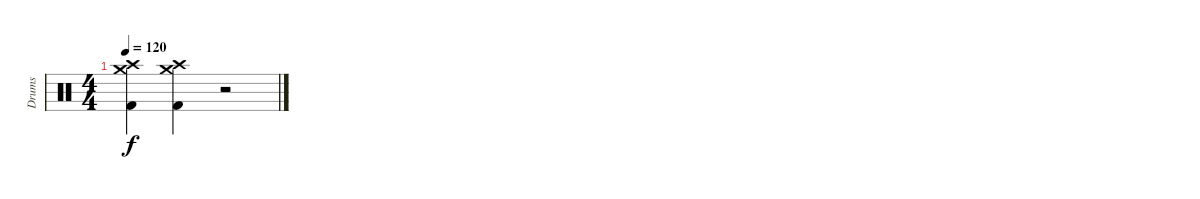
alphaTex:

\track ("Drums" "Drums") {instrument percussion}
\staff {score}
\articulation defaults
\ts (4 4)
\section ("" "")
\tempo 120
\clef neutral
\ks c
("Crash high (hit)" "Crash medium (hit)" "Kick (hit) 2").4{dy f} ("Crash high (hit)" "Crash medium (hit)" "Kick (hit) 2").4 r.2
